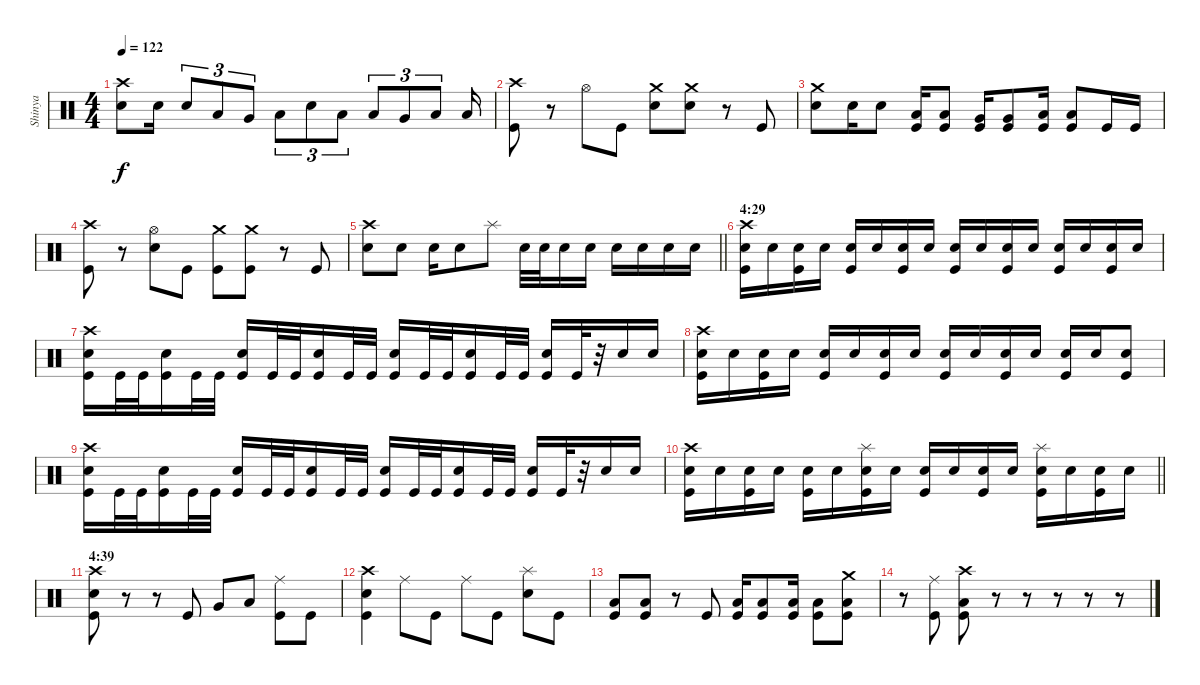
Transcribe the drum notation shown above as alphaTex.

\track ("Shinya" "Shinya") {instrument percussion}
\staff {score}
\articulation defaults
\ts (4 4)
\tempo 122
\clef neutral
\ks c
("Crash high (hit)" "Snare (hit) 2").8{dy f} "Snare (hit) 2".16 "Snare (hit) 2".8{tu (3 2)} "Low Tom (hit)".8{tu (3 2)} "Very Low Tom (hit)".8{tu (3 2)} "Low Floor Tom (hit)".8{tu (3 2)} "Snare (hit) 2".8{tu (3 2)} "Low Tom (hit)".8{tu (3 2)} "Low Tom (hit)".8{tu (3 2)} "Very Low Tom (hit)".8{tu (3 2)} "Low Floor Tom (hit)".8{tu (3 2)} "Low Floor Tom (hit)".16 |
("Crash high (hit)" "Kick (hit)").8 r.8 "Hi-Hat (open)".8 "Kick (hit)".8 ("Crash medium (hit)" "Snare (hit) 2").8 ("Crash medium (hit)" "Snare (hit) 2").8 r.8 "Kick (hit)".8 |
("Crash medium (hit)" "Snare (hit) 2").8 "Snare (hit) 2".16 "Snare (hit) 2".8 ("Low Tom (hit)" "Kick (hit)").16 ("Low Tom (hit)" "Kick (hit)").8 ("Very Low Tom (hit)" "Kick (hit)").16 ("Very Low Tom (hit)" "Kick (hit)").8 ("Low Floor Tom (hit)" "Kick (hit)").16 ("Low Floor Tom (hit)" "Kick (hit)").8 "Kick (hit)".16 "Kick (hit)".16 |
("Crash high (hit)" "Kick (hit)").8 r.8 ("Hi-Hat (open)" "Snare (hit) 2").8 "Kick (hit)".8 ("Crash medium (hit)" "Kick (hit)").8 ("Crash medium (hit)" "Kick (hit)").8 r.8 "Kick (hit)".8 |
\barLineRight lightlight
("Crash high (hit)" "Snare (hit) 2").8 "Snare (hit) 2".8 "Snare (hit) 2".16 "Snare (hit) 2".8 "Splash (hit)".8 "Snare (hit) 2".32 "Snare (hit) 2".32 "Snare (hit) 2".16 "Snare (hit) 2".16 "Snare (hit) 2".16 "Snare (hit) 2".16 "Snare (hit) 2".16 "Snare (hit) 2".16 |
\section ("" "4:29")
("Crash high (hit)" "Snare (hit) 2" "Kick (hit)").16 "Snare (hit) 2".16 ("Snare (hit) 2" "Kick (hit)").16 "Snare (hit) 2".16 ("Snare (hit) 2" "Kick (hit)").16 "Snare (hit) 2".16 ("Snare (hit) 2" "Kick (hit)").16 "Snare (hit) 2".16 ("Snare (hit) 2" "Kick (hit)").16 "Snare (hit) 2".16 ("Snare (hit) 2" "Kick (hit)").16 "Snare (hit) 2".16 ("Snare (hit) 2" "Kick (hit)").16 "Snare (hit) 2".16 ("Snare (hit) 2" "Kick (hit)").16 "Snare (hit) 2".16 |
("Crash high (hit)" "Snare (hit) 2" "Kick (hit)").16 "Kick (hit)".32 "Kick (hit)".32 ("Snare (hit) 2" "Kick (hit)").16 "Kick (hit)".32 "Kick (hit)".32 ("Snare (hit) 2" "Kick (hit)").16 "Kick (hit)".32 "Kick (hit)".32 ("Snare (hit) 2" "Kick (hit)").16 "Kick (hit)".32 "Kick (hit)".32 ("Snare (hit) 2" "Kick (hit)").16 "Kick (hit)".32 "Kick (hit)".32 ("Snare (hit) 2" "Kick (hit)").16 "Kick (hit)".32 "Kick (hit)".32 ("Snare (hit) 2" "Kick (hit)").16 "Kick (hit)".32 r.32 "Snare (hit) 2".16 "Snare (hit) 2".16 |
("Crash high (hit)" "Snare (hit) 2" "Kick (hit)").16 "Snare (hit) 2".16 ("Snare (hit) 2" "Kick (hit)").16 "Snare (hit) 2".16 ("Snare (hit) 2" "Kick (hit)").16 "Snare (hit) 2".16 ("Snare (hit) 2" "Kick (hit)").16 "Snare (hit) 2".16 ("Snare (hit) 2" "Kick (hit)").16 "Snare (hit) 2".16 ("Snare (hit) 2" "Kick (hit)").16 "Snare (hit) 2".16 ("Snare (hit) 2" "Kick (hit)").16 "Snare (hit) 2".16 ("Snare (hit) 2" "Kick (hit)").8 |
("Crash high (hit)" "Snare (hit) 2" "Kick (hit)").16 "Kick (hit)".32 "Kick (hit)".32 ("Snare (hit) 2" "Kick (hit)").16 "Kick (hit)".32 "Kick (hit)".32 ("Snare (hit) 2" "Kick (hit)").16 "Kick (hit)".32 "Kick (hit)".32 ("Snare (hit) 2" "Kick (hit)").16 "Kick (hit)".32 "Kick (hit)".32 ("Snare (hit) 2" "Kick (hit)").16 "Kick (hit)".32 "Kick (hit)".32 ("Snare (hit) 2" "Kick (hit)").16 "Kick (hit)".32 "Kick (hit)".32 ("Snare (hit) 2" "Kick (hit)").16 "Kick (hit)".32 r.32 "Snare (hit) 2".16 "Snare (hit) 2".16 |
\barLineRight lightlight
("Crash high (hit)" "Snare (hit) 2" "Kick (hit)").16 "Snare (hit) 2".16 ("Snare (hit) 2" "Kick (hit)").16 "Snare (hit) 2".16 ("Snare (hit) 2" "Kick (hit)").16 "Snare (hit) 2".16 ("Splash (hit)" "Snare (hit) 2" "Kick (hit)").16 "Snare (hit) 2".16 ("Snare (hit) 2" "Kick (hit)").16 "Snare (hit) 2".16 ("Snare (hit) 2" "Kick (hit)").16 "Snare (hit) 2".16 ("Splash (hit)" "Snare (hit) 2" "Kick (hit)").16 "Snare (hit) 2".16 ("Snare (hit) 2" "Kick (hit)").16 "Snare (hit) 2".16 |
\section ("" "4:39")
("Crash high (hit)" "Snare (hit) 2" "Kick (hit)").8 r.8 r.8 "Kick (hit)".8 "Very Low Tom (hit)".8 "Low Floor Tom (hit)".8 ("Ride (middle)" "Kick (hit)").8 "Kick (hit)".8 |
("Crash high (hit)" "Snare (hit) 2" "Kick (hit)").4 "Ride (middle)".8 "Kick (hit)".8 "Ride (middle)".8 "Kick (hit)".8 ("Splash (hit)" "Snare (hit) 2").8 "Kick (hit)".8 |
("Low Floor Tom (hit)" "Kick (hit)").8 ("Low Floor Tom (hit)" "Kick (hit)").8 r.8 "Kick (hit)".8 ("Low Floor Tom (hit)" "Kick (hit)").16 ("Low Floor Tom (hit)" "Kick (hit)").8 ("Low Floor Tom (hit)" "Kick (hit)").16 ("Low Floor Tom (hit)" "Kick (hit)").8 ("Crash medium (hit)" "Low Floor Tom (hit)" "Kick (hit)").8 |
r.8 ("Ride (middle)" "Kick (hit)").8 ("Crash high (hit)" "Low Floor Tom (hit)" "Kick (hit)").8 r.8 r.8 r.8 r.8 r.8
